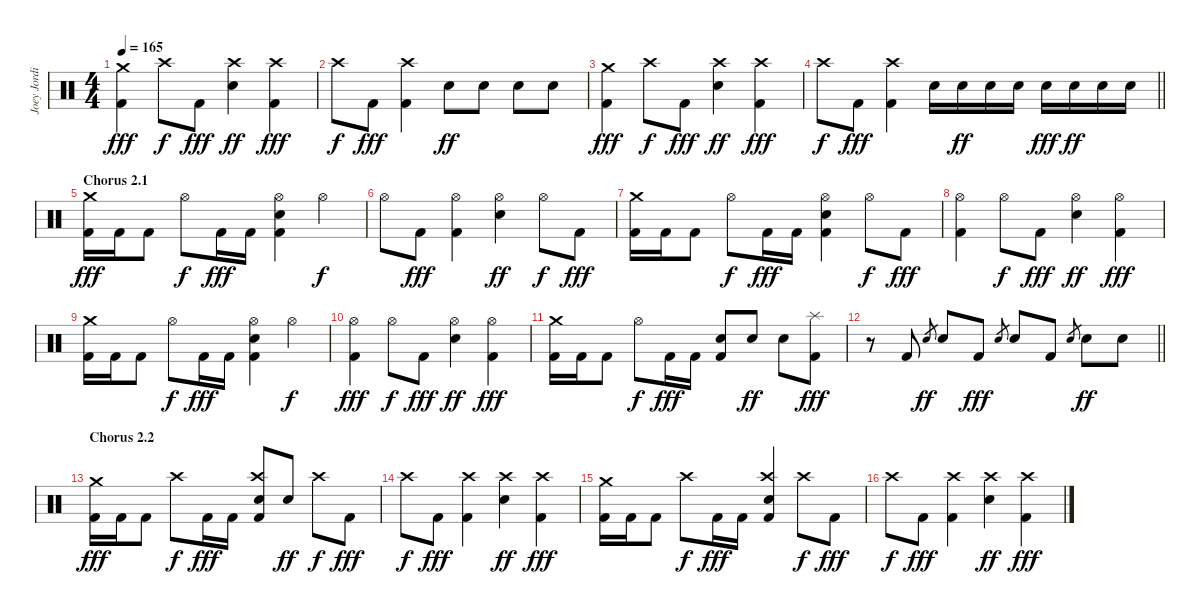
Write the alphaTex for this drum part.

\track ("Joey Jordison" "Joey Jordi") {instrument percussion}
\staff {score}
\articulation defaults
\ts (4 4)
\tempo 165
\clef neutral
\ks c
("Crash medium (hit)" "Kick (hit) 2").4{dy fff} "Crash high (hit)".8{dy f} "Kick (hit) 2".8{dy fff} ("Crash high (hit)" "Electric Snare (hit)").4{dy ff} ("Crash high (hit)" "Kick (hit) 2").4{dy fff} |
"Crash high (hit)".8{dy f} "Kick (hit) 2".8{dy fff} ("Crash high (hit)" "Kick (hit) 2").4 "Electric Snare (hit)".8{dy ff} "Electric Snare (hit)".8 "Electric Snare (hit)".8 "Electric Snare (hit)".8 |
("Crash medium (hit)" "Kick (hit) 2").4{dy fff} "Crash high (hit)".8{dy f} "Kick (hit) 2".8{dy fff} ("Crash high (hit)" "Electric Snare (hit)").4{dy ff} ("Crash high (hit)" "Kick (hit) 2").4{dy fff} |
\barLineRight lightlight "Crash high (hit)".8{dy f} "Kick (hit) 2".8{dy fff}
("Crash high (hit)" "Kick (hit) 2").4 "Electric Snare (hit)".16 "Electric Snare (hit)".16{dy ff} "Electric Snare (hit)".16 "Electric Snare (hit)".16 "Electric Snare (hit)".16{dy fff} "Electric Snare (hit)".16{dy ff} "Electric Snare (hit)".16 "Electric Snare (hit)".16 |
\section ("" "Chorus 2.1")
("Crash medium (hit)" "Kick (hit) 2").16{dy fff} "Kick (hit) 2".16 "Kick (hit) 2".8 "Hi-Hat (open)".8{dy f} "Kick (hit) 2".16{dy fff} "Kick (hit) 2".16 ("Hi-Hat (open)" "Electric Snare (hit)" "Kick (hit) 2").4 "Hi-Hat (open)".4{dy f} |
"Hi-Hat (open)".8 "Kick (hit) 2".8{dy fff} ("Hi-Hat (open)" "Kick (hit) 2").4 ("Hi-Hat (open)" "Electric Snare (hit)").4{dy ff} "Hi-Hat (open)".8{dy f} "Kick (hit) 2".8{dy fff} |
("Crash medium (hit)" "Kick (hit) 2").16 "Kick (hit) 2".16 "Kick (hit) 2".8 "Hi-Hat (open)".8{dy f} "Kick (hit) 2".16{dy fff} "Kick (hit) 2".16 ("Hi-Hat (open)" "Electric Snare (hit)" "Kick (hit) 2").4 "Hi-Hat (open)".8{dy f} "Kick (hit) 2".8{dy fff} |
("Hi-Hat (open)" "Kick (hit) 2").4 "Hi-Hat (open)".8{dy f} "Kick (hit) 2".8{dy fff} ("Hi-Hat (open)" "Electric Snare (hit)").4{dy ff} ("Hi-Hat (open)" "Kick (hit) 2").4{dy fff} |
("Crash medium (hit)" "Kick (hit) 2").16 "Kick (hit) 2".16 "Kick (hit) 2".8 "Hi-Hat (open)".8{dy f} "Kick (hit) 2".16{dy fff} "Kick (hit) 2".16 ("Hi-Hat (open)" "Electric Snare (hit)" "Kick (hit) 2").4 "Hi-Hat (open)".4{dy f} |
("Hi-Hat (open)" "Kick (hit) 2").4{dy fff} "Hi-Hat (open)".8{dy f} "Kick (hit) 2".8{dy fff} ("Hi-Hat (open)" "Electric Snare (hit)").4{dy ff} ("Hi-Hat (open)" "Kick (hit) 2").4{dy fff} |
("Crash medium (hit)" "Kick (hit) 2").16 "Kick (hit) 2".16 "Kick (hit) 2".8 "Hi-Hat (open)".8{dy f} "Kick (hit) 2".16{dy fff} "Kick (hit) 2".16 ("Electric Snare (hit)" "Kick (hit) 2").8 "Electric Snare (hit)".8{dy ff} "Electric Snare (hit)".8 ("Splash (hit)" "Kick (hit) 2").8{dy fff} |
\barLineRight lightlight
r.8 "Kick (hit) 2".8 "Electric Snare (hit)".8{gr dy ff} "Electric Snare (hit)".8 "Kick (hit) 2".8{dy fff} "Electric Snare (hit)".8{gr} "Electric Snare (hit)".8 "Kick (hit) 2".8 "Electric Snare (hit)".8{gr} "Electric Snare (hit)".8{dy ff} "Electric Snare (hit)".8 |
\section ("" "Chorus 2.2")
("Crash medium (hit)" "Kick (hit) 2").16{dy fff} "Kick (hit) 2".16 "Kick (hit) 2".8 "Crash high (hit)".8{dy f} "Kick (hit) 2".16{dy fff} "Kick (hit) 2".16 ("Crash high (hit)" "Electric Snare (hit)" "Kick (hit) 2").8 "Electric Snare (hit)".8{dy ff} "Crash high (hit)".8{dy f} "Kick (hit) 2".8{dy fff} |
"Crash high (hit)".8{dy f} "Kick (hit) 2".8{dy fff} ("Crash high (hit)" "Kick (hit) 2").4 ("Crash high (hit)" "Electric Snare (hit)").4{dy ff} ("Crash high (hit)" "Kick (hit) 2").4{dy fff} |
("Crash medium (hit)" "Kick (hit) 2").16 "Kick (hit) 2".16 "Kick (hit) 2".8 "Crash high (hit)".8{dy f} "Kick (hit) 2".16{dy fff} "Kick (hit) 2".16 ("Crash high (hit)" "Electric Snare (hit)" "Kick (hit) 2").4 "Crash high (hit)".8{dy f} "Kick (hit) 2".8{dy fff} |
"Crash high (hit)".8{dy f} "Kick (hit) 2".8{dy fff} ("Crash high (hit)" "Kick (hit) 2").4 ("Crash high (hit)" "Electric Snare (hit)").4{dy ff} ("Crash high (hit)" "Kick (hit) 2").4{dy fff}
